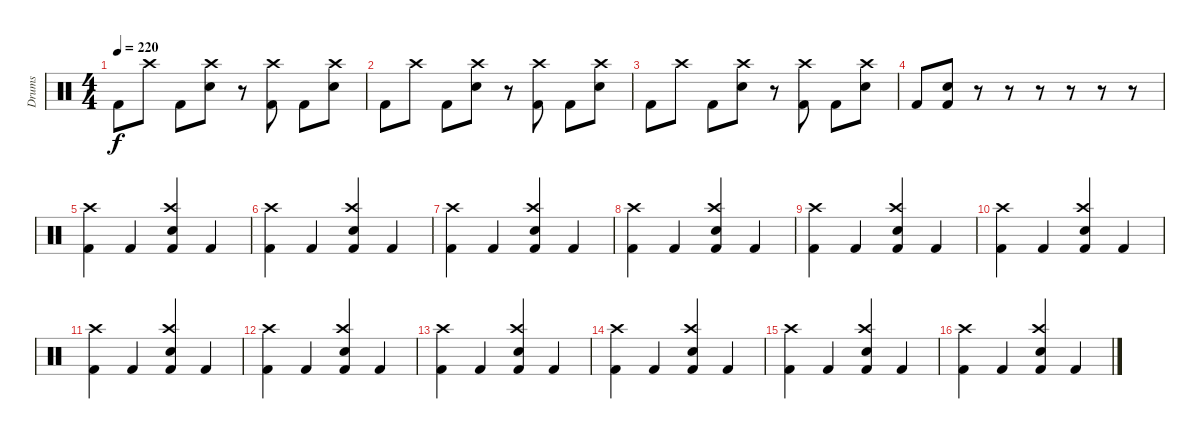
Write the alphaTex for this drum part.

\track ("Drums" "Drums") {instrument percussion}
\staff {score}
\articulation defaults
\ts (4 4)
\tempo 220
\clef neutral
\ks c "Kick (hit) 2".8{dy f} "Crash high (hit)".8 "Kick (hit) 2".8
("Crash high (hit)" "Snare (hit) 2").8 r.8 ("Crash high (hit)" "Kick (hit) 2").8 "Kick (hit) 2".8 ("Crash high (hit)" "Snare (hit) 2").8 |
"Kick (hit) 2".8 "Crash high (hit)".8 "Kick (hit) 2".8 ("Crash high (hit)" "Snare (hit) 2").8 r.8 ("Crash high (hit)" "Kick (hit) 2").8 "Kick (hit) 2".8 ("Crash high (hit)" "Snare (hit) 2").8 |
"Kick (hit) 2".8 "Crash high (hit)".8 "Kick (hit) 2".8 ("Crash high (hit)" "Snare (hit) 2").8 r.8 ("Crash high (hit)" "Kick (hit) 2").8 "Kick (hit) 2".8 ("Crash high (hit)" "Snare (hit) 2").8 |
"Kick (hit) 2".8 ("Snare (hit) 2" "Kick (hit) 2").8 r.8 r.8 r.8 r.8 r.8 r.8 |
("Crash high (hit)" "Kick (hit) 2").4 "Kick (hit) 2".4 ("Crash high (hit)" "Snare (hit) 2" "Kick (hit) 2").4 "Kick (hit) 2".4 |
("Crash high (hit)" "Kick (hit) 2").4 "Kick (hit) 2".4 ("Crash high (hit)" "Snare (hit) 2" "Kick (hit) 2").4 "Kick (hit) 2".4 |
("Crash high (hit)" "Kick (hit) 2").4 "Kick (hit) 2".4 ("Crash high (hit)" "Snare (hit) 2" "Kick (hit) 2").4 "Kick (hit) 2".4 |
("Crash high (hit)" "Kick (hit) 2").4 "Kick (hit) 2".4 ("Crash high (hit)" "Snare (hit) 2" "Kick (hit) 2").4 "Kick (hit) 2".4 |
("Crash high (hit)" "Kick (hit) 2").4 "Kick (hit) 2".4 ("Crash high (hit)" "Snare (hit) 2" "Kick (hit) 2").4 "Kick (hit) 2".4 |
("Crash high (hit)" "Kick (hit) 2").4 "Kick (hit) 2".4 ("Crash high (hit)" "Snare (hit) 2" "Kick (hit) 2").4 "Kick (hit) 2".4 |
("Crash high (hit)" "Kick (hit) 2").4 "Kick (hit) 2".4 ("Crash high (hit)" "Snare (hit) 2" "Kick (hit) 2").4 "Kick (hit) 2".4 |
("Crash high (hit)" "Kick (hit) 2").4 "Kick (hit) 2".4 ("Crash high (hit)" "Snare (hit) 2" "Kick (hit) 2").4 "Kick (hit) 2".4 |
("Crash high (hit)" "Kick (hit) 2").4 "Kick (hit) 2".4 ("Crash high (hit)" "Snare (hit) 2" "Kick (hit) 2").4 "Kick (hit) 2".4 |
("Crash high (hit)" "Kick (hit) 2").4 "Kick (hit) 2".4 ("Crash high (hit)" "Snare (hit) 2" "Kick (hit) 2").4 "Kick (hit) 2".4 |
("Crash high (hit)" "Kick (hit) 2").4 "Kick (hit) 2".4 ("Crash high (hit)" "Snare (hit) 2" "Kick (hit) 2").4 "Kick (hit) 2".4 |
("Crash high (hit)" "Kick (hit) 2").4 "Kick (hit) 2".4 ("Crash high (hit)" "Snare (hit) 2" "Kick (hit) 2").4 "Kick (hit) 2".4
